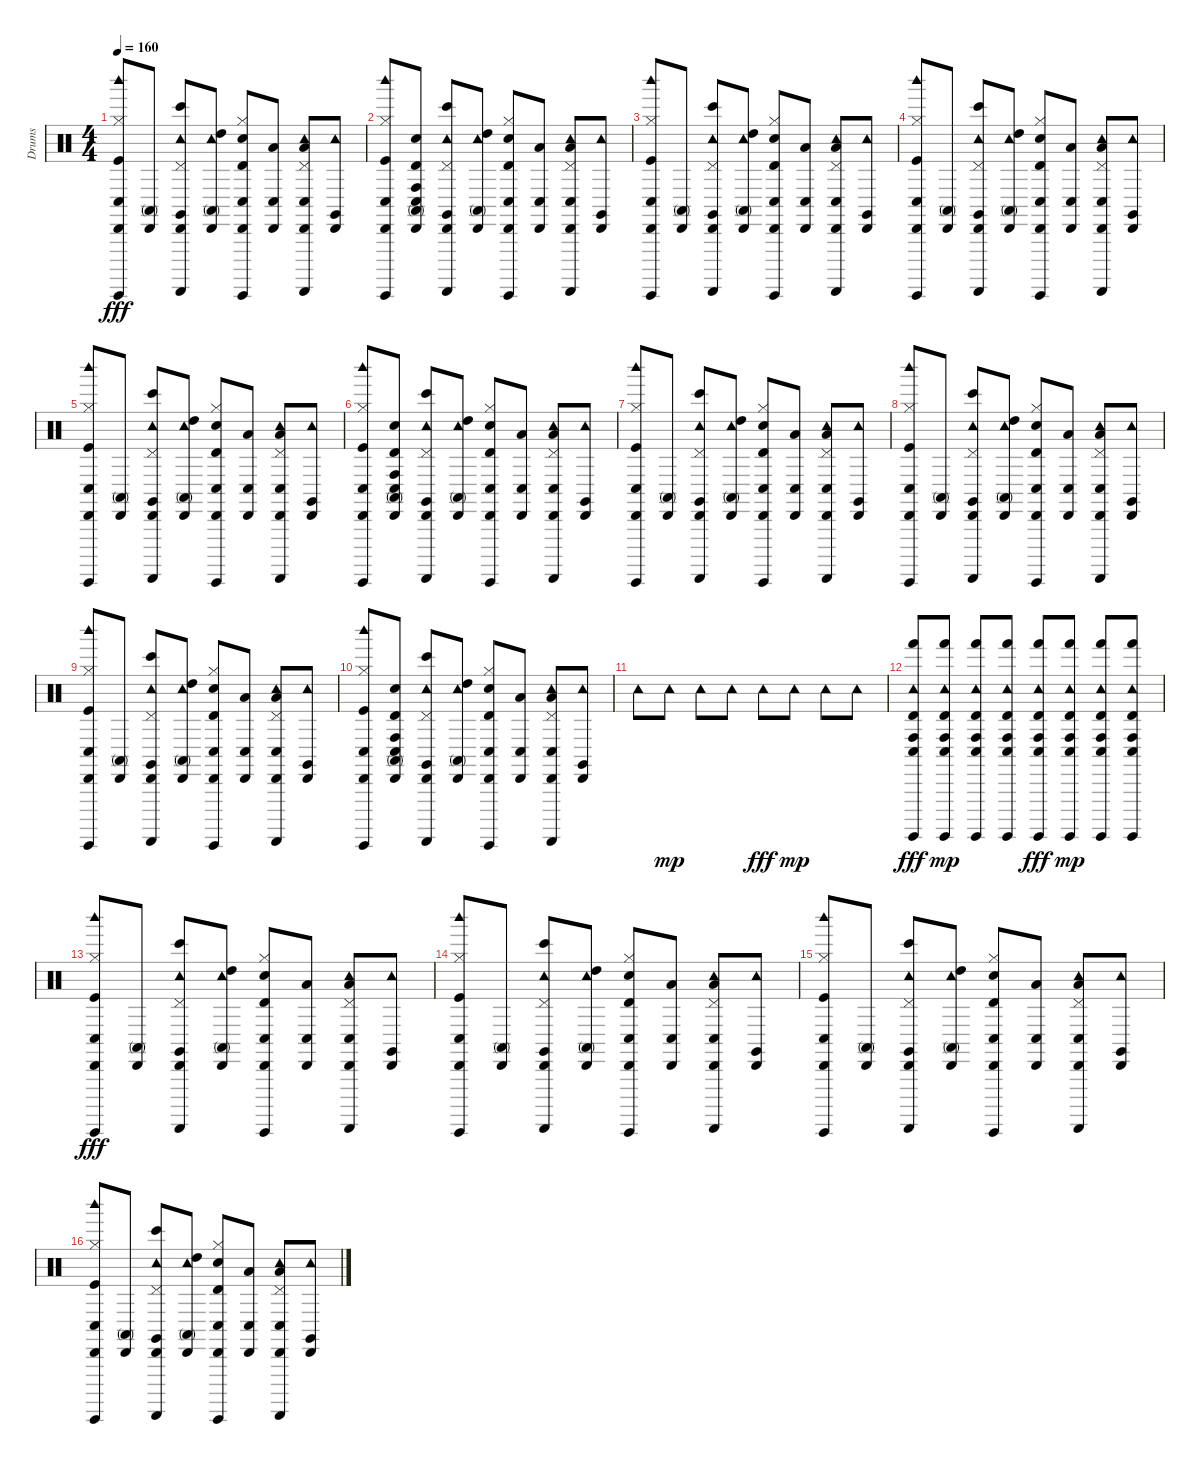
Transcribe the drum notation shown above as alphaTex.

\track ("Drums" "Drums") {instrument percussion}
\staff {score}
\articulation defaults
\ts (4 4)
\tempo 160
\clef neutral
\ks c
("Kick (hit)" "Cabasa (hit)" "Hi-Hat (closed)" "Guiro (hit)" "Woodblock high (hit)" "Conga low (hit)").8{dy fff} ("Cabasa (hit)" "Conga high (mute)").8 ("Tambourine (hit)" "Cabasa (hit)" "Pedal Hi-Hat (hit)" "Guiro (scrap-return)" "Claves (hit)" "Bongo High (hit)").8 ("Tambourine (hit)" "Cabasa (hit)" "High Tom (hit)" "Conga high (mute)").8 ("Electric Snare (hit)" "Cabasa (hit)" "Hi-Hat (closed)" "Guiro (hit)" "Timbale high (hit)" "Conga low (hit)").8 ("Cabasa (hit)" "Conga low (hit)" "Low Tom (hit)").8 ("Tambourine (hit)" "Cabasa (hit)" "Pedal Hi-Hat (hit)" "Guiro (scrap-return)" "Conga low (hit)" "Low Tom (hit)").8 ("Tambourine (hit)" "Cabasa (hit)" "Claves (hit)").8 |
("Kick (hit)" "Cabasa (hit)" "Hi-Hat (closed)" "Guiro (hit)" "Woodblock high (hit)" "Conga low (hit)").8 ("Cabasa (hit)" "Conga high (mute)" "Electric Snare (hit)" "Timbale high (hit)" "Conga low (hit)" "Conga high (hit)").8 ("Tambourine (hit)" "Cabasa (hit)" "Pedal Hi-Hat (hit)" "Guiro (scrap-return)" "Claves (hit)" "Bongo High (hit)").8 ("Tambourine (hit)" "Cabasa (hit)" "High Tom (hit)" "Conga high (mute)").8 ("Electric Snare (hit)" "Cabasa (hit)" "Hi-Hat (closed)" "Guiro (hit)" "Timbale high (hit)" "Conga low (hit)").8 ("Cabasa (hit)" "Conga low (hit)" "Low Tom (hit)").8 ("Tambourine (hit)" "Cabasa (hit)" "Pedal Hi-Hat (hit)" "Guiro (scrap-return)" "Conga low (hit)" "Low Tom (hit)").8 ("Tambourine (hit)" "Cabasa (hit)" "Claves (hit)").8 |
("Kick (hit)" "Cabasa (hit)" "Hi-Hat (closed)" "Guiro (hit)" "Woodblock high (hit)" "Conga low (hit)").8 ("Cabasa (hit)" "Conga high (mute)").8 ("Tambourine (hit)" "Cabasa (hit)" "Pedal Hi-Hat (hit)" "Guiro (scrap-return)" "Claves (hit)" "Bongo High (hit)").8 ("Tambourine (hit)" "Cabasa (hit)" "High Tom (hit)" "Conga high (mute)").8 ("Electric Snare (hit)" "Cabasa (hit)" "Hi-Hat (closed)" "Guiro (hit)" "Timbale high (hit)" "Conga low (hit)").8 ("Cabasa (hit)" "Conga low (hit)" "Low Tom (hit)").8 ("Tambourine (hit)" "Cabasa (hit)" "Pedal Hi-Hat (hit)" "Guiro (scrap-return)" "Conga low (hit)" "Low Tom (hit)").8 ("Tambourine (hit)" "Cabasa (hit)" "Claves (hit)").8 |
("Kick (hit)" "Cabasa (hit)" "Hi-Hat (closed)" "Guiro (hit)" "Woodblock high (hit)" "Conga low (hit)").8 ("Cabasa (hit)" "Conga high (mute)").8 ("Tambourine (hit)" "Cabasa (hit)" "Pedal Hi-Hat (hit)" "Guiro (scrap-return)" "Claves (hit)" "Bongo High (hit)").8 ("Tambourine (hit)" "Cabasa (hit)" "High Tom (hit)" "Conga high (mute)").8 ("Electric Snare (hit)" "Cabasa (hit)" "Hi-Hat (closed)" "Guiro (hit)" "Timbale high (hit)" "Conga low (hit)").8 ("Cabasa (hit)" "Conga low (hit)" "Low Tom (hit)").8 ("Tambourine (hit)" "Cabasa (hit)" "Pedal Hi-Hat (hit)" "Guiro (scrap-return)" "Conga low (hit)" "Low Tom (hit)").8 ("Tambourine (hit)" "Cabasa (hit)" "Claves (hit)").8 |
("Kick (hit)" "Cabasa (hit)" "Hi-Hat (closed)" "Guiro (hit)" "Woodblock high (hit)" "Conga low (hit)").8 ("Cabasa (hit)" "Conga high (mute)").8 ("Tambourine (hit)" "Cabasa (hit)" "Pedal Hi-Hat (hit)" "Guiro (scrap-return)" "Claves (hit)" "Bongo High (hit)").8 ("Tambourine (hit)" "Cabasa (hit)" "High Tom (hit)" "Conga high (mute)").8 ("Electric Snare (hit)" "Cabasa (hit)" "Hi-Hat (closed)" "Guiro (hit)" "Timbale high (hit)" "Conga low (hit)").8 ("Cabasa (hit)" "Conga low (hit)" "Low Tom (hit)").8 ("Tambourine (hit)" "Cabasa (hit)" "Pedal Hi-Hat (hit)" "Guiro (scrap-return)" "Conga low (hit)" "Low Tom (hit)").8 ("Tambourine (hit)" "Cabasa (hit)" "Claves (hit)").8 |
("Kick (hit)" "Cabasa (hit)" "Hi-Hat (closed)" "Guiro (hit)" "Woodblock high (hit)" "Conga low (hit)").8 ("Cabasa (hit)" "Conga high (mute)" "Electric Snare (hit)" "Timbale high (hit)" "Conga low (hit)" "Conga high (hit)").8 ("Tambourine (hit)" "Cabasa (hit)" "Pedal Hi-Hat (hit)" "Guiro (scrap-return)" "Claves (hit)" "Bongo High (hit)").8 ("Tambourine (hit)" "Cabasa (hit)" "High Tom (hit)" "Conga high (mute)").8 ("Electric Snare (hit)" "Cabasa (hit)" "Hi-Hat (closed)" "Guiro (hit)" "Timbale high (hit)" "Conga low (hit)").8 ("Cabasa (hit)" "Conga low (hit)" "Low Tom (hit)").8 ("Tambourine (hit)" "Cabasa (hit)" "Pedal Hi-Hat (hit)" "Guiro (scrap-return)" "Conga low (hit)" "Low Tom (hit)").8 ("Tambourine (hit)" "Cabasa (hit)" "Claves (hit)").8 |
("Kick (hit)" "Cabasa (hit)" "Hi-Hat (closed)" "Guiro (hit)" "Woodblock high (hit)" "Conga low (hit)").8 ("Cabasa (hit)" "Conga high (mute)").8 ("Tambourine (hit)" "Cabasa (hit)" "Pedal Hi-Hat (hit)" "Guiro (scrap-return)" "Claves (hit)" "Bongo High (hit)").8 ("Tambourine (hit)" "Cabasa (hit)" "High Tom (hit)" "Conga high (mute)").8 ("Electric Snare (hit)" "Cabasa (hit)" "Hi-Hat (closed)" "Guiro (hit)" "Timbale high (hit)" "Conga low (hit)").8 ("Cabasa (hit)" "Conga low (hit)" "Low Tom (hit)").8 ("Tambourine (hit)" "Cabasa (hit)" "Pedal Hi-Hat (hit)" "Guiro (scrap-return)" "Conga low (hit)" "Low Tom (hit)").8 ("Tambourine (hit)" "Cabasa (hit)" "Claves (hit)").8 |
("Kick (hit)" "Cabasa (hit)" "Hi-Hat (closed)" "Guiro (hit)" "Woodblock high (hit)" "Conga low (hit)").8 ("Cabasa (hit)" "Conga high (mute)").8 ("Tambourine (hit)" "Cabasa (hit)" "Pedal Hi-Hat (hit)" "Guiro (scrap-return)" "Claves (hit)" "Bongo High (hit)").8 ("Tambourine (hit)" "Cabasa (hit)" "High Tom (hit)" "Conga high (mute)").8 ("Electric Snare (hit)" "Cabasa (hit)" "Hi-Hat (closed)" "Guiro (hit)" "Timbale high (hit)" "Conga low (hit)").8 ("Cabasa (hit)" "Conga low (hit)" "Low Tom (hit)").8 ("Tambourine (hit)" "Cabasa (hit)" "Pedal Hi-Hat (hit)" "Guiro (scrap-return)" "Conga low (hit)" "Low Tom (hit)").8 ("Tambourine (hit)" "Cabasa (hit)" "Claves (hit)").8 |
("Kick (hit)" "Cabasa (hit)" "Hi-Hat (closed)" "Guiro (hit)" "Woodblock high (hit)" "Conga low (hit)").8 ("Cabasa (hit)" "Conga high (mute)").8 ("Tambourine (hit)" "Cabasa (hit)" "Pedal Hi-Hat (hit)" "Guiro (scrap-return)" "Claves (hit)" "Bongo High (hit)").8 ("Tambourine (hit)" "Cabasa (hit)" "High Tom (hit)" "Conga high (mute)").8 ("Electric Snare (hit)" "Cabasa (hit)" "Hi-Hat (closed)" "Guiro (hit)" "Timbale high (hit)" "Conga low (hit)").8 ("Cabasa (hit)" "Conga low (hit)" "Low Tom (hit)").8 ("Tambourine (hit)" "Cabasa (hit)" "Pedal Hi-Hat (hit)" "Guiro (scrap-return)" "Conga low (hit)" "Low Tom (hit)").8 ("Tambourine (hit)" "Cabasa (hit)" "Claves (hit)").8 |
("Kick (hit)" "Cabasa (hit)" "Hi-Hat (closed)" "Guiro (hit)" "Woodblock high (hit)" "Conga low (hit)").8 ("Cabasa (hit)" "Conga high (mute)" "Electric Snare (hit)" "Timbale high (hit)" "Conga low (hit)" "Conga high (hit)").8 ("Tambourine (hit)" "Cabasa (hit)" "Pedal Hi-Hat (hit)" "Guiro (scrap-return)" "Claves (hit)" "Bongo High (hit)").8 ("Tambourine (hit)" "Cabasa (hit)" "High Tom (hit)" "Conga high (mute)").8 ("Electric Snare (hit)" "Cabasa (hit)" "Hi-Hat (closed)" "Guiro (hit)" "Timbale high (hit)" "Conga low (hit)").8 ("Cabasa (hit)" "Conga low (hit)" "Low Tom (hit)").8 ("Tambourine (hit)" "Cabasa (hit)" "Pedal Hi-Hat (hit)" "Guiro (scrap-return)" "Conga low (hit)" "Low Tom (hit)").8 ("Tambourine (hit)" "Cabasa (hit)" "Claves (hit)").8 |
"Tambourine (hit)".8 "Tambourine (hit)".8{dy mp} "Tambourine (hit)".8 "Tambourine (hit)".8 "Tambourine (hit)".8{dy fff} "Tambourine (hit)".8{dy mp} "Tambourine (hit)".8 "Tambourine (hit)".8 |
("Timbale high (hit)" "Conga low (hit)" "Conga high (hit)" "Hand (hit)" "Surdo (hit)" "Tambourine (hit)").8{dy fff} ("Timbale high (hit)" "Conga low (hit)" "Conga high (hit)" "Hand (hit)" "Surdo (hit)" "Tambourine (hit)").8{dy mp} ("Timbale high (hit)" "Conga low (hit)" "Conga high (hit)" "Hand (hit)" "Surdo (hit)" "Tambourine (hit)").8 ("Timbale high (hit)" "Conga low (hit)" "Conga high (hit)" "Hand (hit)" "Surdo (hit)" "Tambourine (hit)").8 ("Timbale high (hit)" "Conga low (hit)" "Conga high (hit)" "Hand (hit)" "Surdo (hit)" "Tambourine (hit)").8{dy fff} ("Timbale high (hit)" "Conga low (hit)" "Conga high (hit)" "Hand (hit)" "Surdo (hit)" "Tambourine (hit)").8{dy mp} ("Timbale high (hit)" "Conga low (hit)" "Conga high (hit)" "Hand (hit)" "Surdo (hit)" "Tambourine (hit)").8 ("Timbale high (hit)" "Conga low (hit)" "Conga high (hit)" "Hand (hit)" "Surdo (hit)" "Tambourine (hit)").8 |
("Kick (hit)" "Cabasa (hit)" "Hi-Hat (closed)" "Guiro (hit)" "Woodblock high (hit)" "Conga low (hit)").8{dy fff} ("Cabasa (hit)" "Conga high (mute)").8 ("Tambourine (hit)" "Cabasa (hit)" "Pedal Hi-Hat (hit)" "Guiro (scrap-return)" "Claves (hit)" "Bongo High (hit)").8 ("Tambourine (hit)" "Cabasa (hit)" "High Tom (hit)" "Conga high (mute)").8 ("Electric Snare (hit)" "Cabasa (hit)" "Hi-Hat (closed)" "Guiro (hit)" "Timbale high (hit)" "Conga low (hit)").8 ("Cabasa (hit)" "Conga low (hit)" "Low Tom (hit)").8 ("Tambourine (hit)" "Cabasa (hit)" "Pedal Hi-Hat (hit)" "Guiro (scrap-return)" "Conga low (hit)" "Low Tom (hit)").8 ("Tambourine (hit)" "Cabasa (hit)" "Claves (hit)").8 |
("Kick (hit)" "Cabasa (hit)" "Hi-Hat (closed)" "Guiro (hit)" "Woodblock high (hit)" "Conga low (hit)").8 ("Cabasa (hit)" "Conga high (mute)").8 ("Tambourine (hit)" "Cabasa (hit)" "Pedal Hi-Hat (hit)" "Guiro (scrap-return)" "Claves (hit)" "Bongo High (hit)").8 ("Tambourine (hit)" "Cabasa (hit)" "High Tom (hit)" "Conga high (mute)").8 ("Electric Snare (hit)" "Cabasa (hit)" "Hi-Hat (closed)" "Guiro (hit)" "Timbale high (hit)" "Conga low (hit)").8 ("Cabasa (hit)" "Conga low (hit)" "Low Tom (hit)").8 ("Tambourine (hit)" "Cabasa (hit)" "Pedal Hi-Hat (hit)" "Guiro (scrap-return)" "Conga low (hit)" "Low Tom (hit)").8 ("Tambourine (hit)" "Cabasa (hit)" "Claves (hit)").8 |
("Kick (hit)" "Cabasa (hit)" "Hi-Hat (closed)" "Guiro (hit)" "Woodblock high (hit)" "Conga low (hit)").8 ("Cabasa (hit)" "Conga high (mute)").8 ("Tambourine (hit)" "Cabasa (hit)" "Pedal Hi-Hat (hit)" "Guiro (scrap-return)" "Claves (hit)" "Bongo High (hit)").8 ("Tambourine (hit)" "Cabasa (hit)" "High Tom (hit)" "Conga high (mute)").8 ("Electric Snare (hit)" "Cabasa (hit)" "Hi-Hat (closed)" "Guiro (hit)" "Timbale high (hit)" "Conga low (hit)").8 ("Cabasa (hit)" "Conga low (hit)" "Low Tom (hit)").8 ("Tambourine (hit)" "Cabasa (hit)" "Pedal Hi-Hat (hit)" "Guiro (scrap-return)" "Conga low (hit)" "Low Tom (hit)").8 ("Tambourine (hit)" "Cabasa (hit)" "Claves (hit)").8 |
("Kick (hit)" "Cabasa (hit)" "Hi-Hat (closed)" "Guiro (hit)" "Woodblock high (hit)" "Conga low (hit)").8 ("Cabasa (hit)" "Conga high (mute)").8 ("Tambourine (hit)" "Cabasa (hit)" "Pedal Hi-Hat (hit)" "Guiro (scrap-return)" "Claves (hit)" "Bongo High (hit)").8 ("Tambourine (hit)" "Cabasa (hit)" "High Tom (hit)" "Conga high (mute)").8 ("Electric Snare (hit)" "Cabasa (hit)" "Hi-Hat (closed)" "Guiro (hit)" "Timbale high (hit)" "Conga low (hit)").8 ("Cabasa (hit)" "Conga low (hit)" "Low Tom (hit)").8 ("Tambourine (hit)" "Cabasa (hit)" "Pedal Hi-Hat (hit)" "Guiro (scrap-return)" "Conga low (hit)" "Low Tom (hit)").8 ("Tambourine (hit)" "Cabasa (hit)" "Claves (hit)").8
